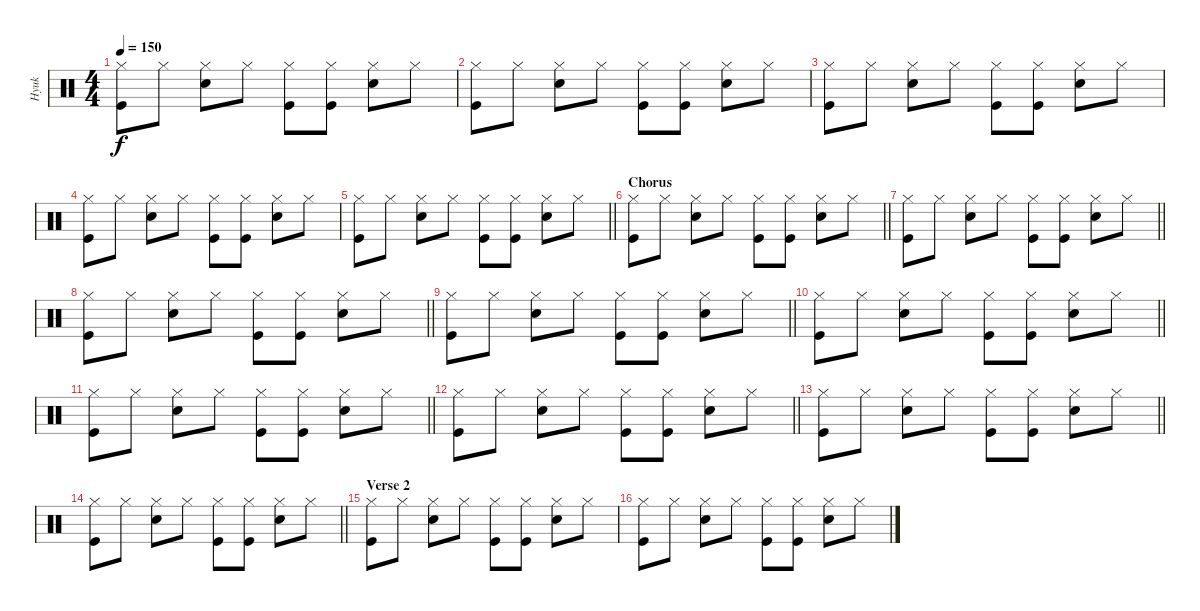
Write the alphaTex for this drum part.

\track ("Hyuk" "Hyuk") {instrument percussion}
\staff {score}
\articulation defaults
\ts (4 4)
\tempo 150
\clef neutral
\ks c
("Hi-Hat (closed)" "Kick (hit)").8{dy f} "Hi-Hat (closed)".8 ("Hi-Hat (closed)" "Snare (hit) 2").8 "Hi-Hat (closed)".8 ("Hi-Hat (closed)" "Kick (hit)").8 ("Hi-Hat (closed)" "Kick (hit)").8 ("Hi-Hat (closed)" "Snare (hit) 2").8 "Hi-Hat (closed)".8 |
("Hi-Hat (closed)" "Kick (hit)").8 "Hi-Hat (closed)".8 ("Hi-Hat (closed)" "Snare (hit) 2").8 "Hi-Hat (closed)".8 ("Hi-Hat (closed)" "Kick (hit)").8 ("Hi-Hat (closed)" "Kick (hit)").8 ("Hi-Hat (closed)" "Snare (hit) 2").8 "Hi-Hat (closed)".8 |
("Hi-Hat (closed)" "Kick (hit)").8 "Hi-Hat (closed)".8 ("Hi-Hat (closed)" "Snare (hit) 2").8 "Hi-Hat (closed)".8 ("Hi-Hat (closed)" "Kick (hit)").8 ("Hi-Hat (closed)" "Kick (hit)").8 ("Hi-Hat (closed)" "Snare (hit) 2").8 "Hi-Hat (closed)".8 |
("Hi-Hat (closed)" "Kick (hit)").8 "Hi-Hat (closed)".8 ("Hi-Hat (closed)" "Snare (hit) 2").8 "Hi-Hat (closed)".8 ("Hi-Hat (closed)" "Kick (hit)").8 ("Hi-Hat (closed)" "Kick (hit)").8 ("Hi-Hat (closed)" "Snare (hit) 2").8 "Hi-Hat (closed)".8 |
\barLineRight lightlight
("Hi-Hat (closed)" "Kick (hit)").8 "Hi-Hat (closed)".8 ("Hi-Hat (closed)" "Snare (hit) 2").8 "Hi-Hat (closed)".8 ("Hi-Hat (closed)" "Kick (hit)").8 ("Hi-Hat (closed)" "Kick (hit)").8 ("Hi-Hat (closed)" "Snare (hit) 2").8 "Hi-Hat (closed)".8 |
\section ("" "Chorus")
\barLineRight lightlight
("Hi-Hat (closed)" "Kick (hit)").8 "Hi-Hat (closed)".8 ("Hi-Hat (closed)" "Snare (hit) 2").8 "Hi-Hat (closed)".8 ("Hi-Hat (closed)" "Kick (hit)").8 ("Hi-Hat (closed)" "Kick (hit)").8 ("Hi-Hat (closed)" "Snare (hit) 2").8 "Hi-Hat (closed)".8 |
\barLineRight lightlight
("Hi-Hat (closed)" "Kick (hit)").8 "Hi-Hat (closed)".8 ("Hi-Hat (closed)" "Snare (hit) 2").8 "Hi-Hat (closed)".8 ("Hi-Hat (closed)" "Kick (hit)").8 ("Hi-Hat (closed)" "Kick (hit)").8 ("Hi-Hat (closed)" "Snare (hit) 2").8 "Hi-Hat (closed)".8 |
\barLineRight lightlight
("Hi-Hat (closed)" "Kick (hit)").8 "Hi-Hat (closed)".8 ("Hi-Hat (closed)" "Snare (hit) 2").8 "Hi-Hat (closed)".8 ("Hi-Hat (closed)" "Kick (hit)").8 ("Hi-Hat (closed)" "Kick (hit)").8 ("Hi-Hat (closed)" "Snare (hit) 2").8 "Hi-Hat (closed)".8 |
\barLineRight lightlight
("Hi-Hat (closed)" "Kick (hit)").8 "Hi-Hat (closed)".8 ("Hi-Hat (closed)" "Snare (hit) 2").8 "Hi-Hat (closed)".8 ("Hi-Hat (closed)" "Kick (hit)").8 ("Hi-Hat (closed)" "Kick (hit)").8 ("Hi-Hat (closed)" "Snare (hit) 2").8 "Hi-Hat (closed)".8 |
\barLineRight lightlight
("Hi-Hat (closed)" "Kick (hit)").8 "Hi-Hat (closed)".8 ("Hi-Hat (closed)" "Snare (hit) 2").8 "Hi-Hat (closed)".8 ("Hi-Hat (closed)" "Kick (hit)").8 ("Hi-Hat (closed)" "Kick (hit)").8 ("Hi-Hat (closed)" "Snare (hit) 2").8 "Hi-Hat (closed)".8 |
\barLineRight lightlight
("Hi-Hat (closed)" "Kick (hit)").8 "Hi-Hat (closed)".8 ("Hi-Hat (closed)" "Snare (hit) 2").8 "Hi-Hat (closed)".8 ("Hi-Hat (closed)" "Kick (hit)").8 ("Hi-Hat (closed)" "Kick (hit)").8 ("Hi-Hat (closed)" "Snare (hit) 2").8 "Hi-Hat (closed)".8 |
\barLineRight lightlight
("Hi-Hat (closed)" "Kick (hit)").8 "Hi-Hat (closed)".8 ("Hi-Hat (closed)" "Snare (hit) 2").8 "Hi-Hat (closed)".8 ("Hi-Hat (closed)" "Kick (hit)").8 ("Hi-Hat (closed)" "Kick (hit)").8 ("Hi-Hat (closed)" "Snare (hit) 2").8 "Hi-Hat (closed)".8 |
\barLineRight lightlight
("Hi-Hat (closed)" "Kick (hit)").8 "Hi-Hat (closed)".8 ("Hi-Hat (closed)" "Snare (hit) 2").8 "Hi-Hat (closed)".8 ("Hi-Hat (closed)" "Kick (hit)").8 ("Hi-Hat (closed)" "Kick (hit)").8 ("Hi-Hat (closed)" "Snare (hit) 2").8 "Hi-Hat (closed)".8 |
\barLineRight lightlight
("Hi-Hat (closed)" "Kick (hit)").8 "Hi-Hat (closed)".8 ("Hi-Hat (closed)" "Snare (hit) 2").8 "Hi-Hat (closed)".8 ("Hi-Hat (closed)" "Kick (hit)").8 ("Hi-Hat (closed)" "Kick (hit)").8 ("Hi-Hat (closed)" "Snare (hit) 2").8 "Hi-Hat (closed)".8 |
\section ("" "Verse 2")
("Hi-Hat (closed)" "Kick (hit)").8 "Hi-Hat (closed)".8 ("Hi-Hat (closed)" "Snare (hit) 2").8 "Hi-Hat (closed)".8 ("Hi-Hat (closed)" "Kick (hit)").8 ("Hi-Hat (closed)" "Kick (hit)").8 ("Hi-Hat (closed)" "Snare (hit) 2").8 "Hi-Hat (closed)".8 |
("Hi-Hat (closed)" "Kick (hit)").8 "Hi-Hat (closed)".8 ("Hi-Hat (closed)" "Snare (hit) 2").8 "Hi-Hat (closed)".8 ("Hi-Hat (closed)" "Kick (hit)").8 ("Hi-Hat (closed)" "Kick (hit)").8 ("Hi-Hat (closed)" "Snare (hit) 2").8 "Hi-Hat (closed)".8
